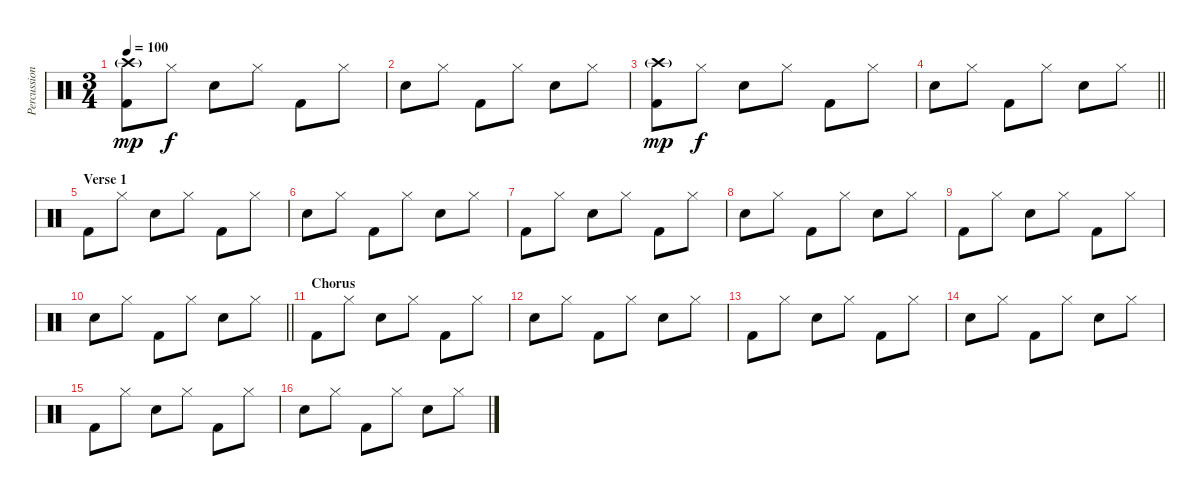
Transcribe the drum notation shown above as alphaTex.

\track ("Percussion" "Percussion") {instrument percussion}
\staff {score}
\articulation defaults
\ts (3 4)
\tempo 100
\clef neutral
\ks c
("Crash high (hit)"{g} "Kick (hit) 2").8{dy mp} "Hi-Hat (closed)".8{dy f} "Snare (hit) 2".8 "Hi-Hat (closed)".8 "Kick (hit) 2".8 "Hi-Hat (closed)".8 |
"Snare (hit) 2".8 "Hi-Hat (closed)".8 "Kick (hit) 2".8 "Hi-Hat (closed)".8 "Snare (hit) 2".8 "Hi-Hat (closed)".8 |
("Crash high (hit)"{g} "Kick (hit) 2").8{dy mp} "Hi-Hat (closed)".8{dy f} "Snare (hit) 2".8 "Hi-Hat (closed)".8 "Kick (hit) 2".8 "Hi-Hat (closed)".8 |
\barLineRight lightlight "Snare (hit) 2".8 "Hi-Hat (closed)".8 "Kick (hit) 2".8 "Hi-Hat (closed)".8 "Snare (hit) 2".8 "Hi-Hat (closed)".8
|
\section ("" "Verse 1")
"Kick (hit) 2".8 "Hi-Hat (closed)".8 "Snare (hit) 2".8 "Hi-Hat (closed)".8 "Kick (hit) 2".8 "Hi-Hat (closed)".8 |
"Snare (hit) 2".8 "Hi-Hat (closed)".8 "Kick (hit) 2".8 "Hi-Hat (closed)".8 "Snare (hit) 2".8 "Hi-Hat (closed)".8 |
"Kick (hit) 2".8 "Hi-Hat (closed)".8 "Snare (hit) 2".8 "Hi-Hat (closed)".8 "Kick (hit) 2".8 "Hi-Hat (closed)".8 |
"Snare (hit) 2".8 "Hi-Hat (closed)".8 "Kick (hit) 2".8 "Hi-Hat (closed)".8 "Snare (hit) 2".8 "Hi-Hat (closed)".8 |
"Kick (hit) 2".8 "Hi-Hat (closed)".8 "Snare (hit) 2".8 "Hi-Hat (closed)".8 "Kick (hit) 2".8 "Hi-Hat (closed)".8 |
\barLineRight lightlight "Snare (hit) 2".8 "Hi-Hat (closed)".8 "Kick (hit) 2".8 "Hi-Hat (closed)".8 "Snare (hit) 2".8 "Hi-Hat (closed)".8
|
\section ("" "Chorus")
"Kick (hit) 2".8 "Hi-Hat (closed)".8 "Snare (hit) 2".8 "Hi-Hat (closed)".8 "Kick (hit) 2".8 "Hi-Hat (closed)".8 |
"Snare (hit) 2".8 "Hi-Hat (closed)".8 "Kick (hit) 2".8 "Hi-Hat (closed)".8 "Snare (hit) 2".8 "Hi-Hat (closed)".8 |
"Kick (hit) 2".8 "Hi-Hat (closed)".8 "Snare (hit) 2".8 "Hi-Hat (closed)".8 "Kick (hit) 2".8 "Hi-Hat (closed)".8 |
"Snare (hit) 2".8 "Hi-Hat (closed)".8 "Kick (hit) 2".8 "Hi-Hat (closed)".8 "Snare (hit) 2".8 "Hi-Hat (closed)".8 |
"Kick (hit) 2".8 "Hi-Hat (closed)".8 "Snare (hit) 2".8 "Hi-Hat (closed)".8 "Kick (hit) 2".8 "Hi-Hat (closed)".8 |
"Snare (hit) 2".8 "Hi-Hat (closed)".8 "Kick (hit) 2".8 "Hi-Hat (closed)".8 "Snare (hit) 2".8 "Hi-Hat (closed)".8
